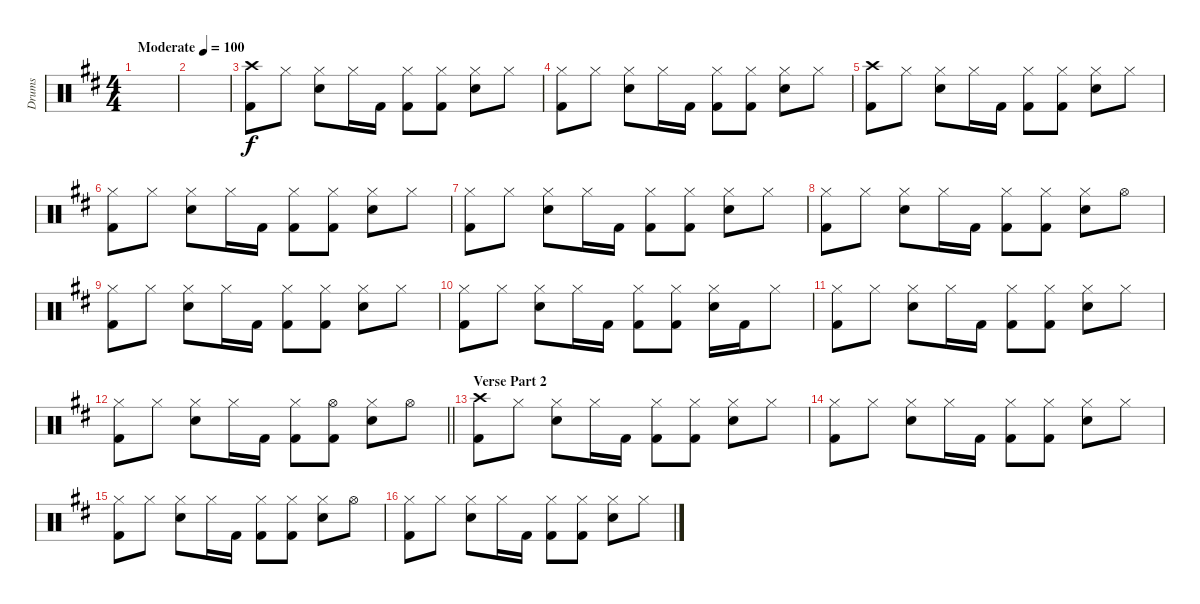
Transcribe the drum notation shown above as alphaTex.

\track ("Drums" "Drums") {instrument percussion}
\staff {score}
\articulation defaults
\ts (4 4)
\tempo (100 "Moderate")
\clef neutral
\ks d
|
|
("Crash high (hit)" "Kick (hit) 2").8 "Hi-Hat (closed)".8 ("Hi-Hat (closed)" "Snare (hit) 2").8 "Hi-Hat (closed)".16 "Kick (hit) 2".16 ("Hi-Hat (closed)" "Kick (hit) 2").8 ("Hi-Hat (closed)" "Kick (hit) 2").8 ("Hi-Hat (closed)" "Snare (hit) 2").8 "Hi-Hat (closed)".8 |
("Hi-Hat (closed)" "Kick (hit) 2").8 "Hi-Hat (closed)".8 ("Hi-Hat (closed)" "Snare (hit) 2").8 "Hi-Hat (closed)".16 "Kick (hit) 2".16 ("Hi-Hat (closed)" "Kick (hit) 2").8 ("Hi-Hat (closed)" "Kick (hit) 2").8 ("Hi-Hat (closed)" "Snare (hit) 2").8 "Hi-Hat (closed)".8 |
("Crash high (hit)" "Kick (hit) 2").8 "Hi-Hat (closed)".8 ("Hi-Hat (closed)" "Snare (hit) 2").8 "Hi-Hat (closed)".16 "Kick (hit) 2".16 ("Hi-Hat (closed)" "Kick (hit) 2").8 ("Hi-Hat (closed)" "Kick (hit) 2").8 ("Hi-Hat (closed)" "Snare (hit) 2").8 "Hi-Hat (closed)".8 |
("Hi-Hat (closed)" "Kick (hit) 2").8 "Hi-Hat (closed)".8 ("Hi-Hat (closed)" "Snare (hit) 2").8 "Hi-Hat (closed)".16 "Kick (hit) 2".16 ("Hi-Hat (closed)" "Kick (hit) 2").8 ("Hi-Hat (closed)" "Kick (hit) 2").8 ("Hi-Hat (closed)" "Snare (hit) 2").8 "Hi-Hat (closed)".8 |
("Hi-Hat (closed)" "Kick (hit) 2").8 "Hi-Hat (closed)".8 ("Hi-Hat (closed)" "Snare (hit) 2").8 "Hi-Hat (closed)".16 "Kick (hit) 2".16 ("Hi-Hat (closed)" "Kick (hit) 2").8 ("Hi-Hat (closed)" "Kick (hit) 2").8 ("Hi-Hat (closed)" "Snare (hit) 2").8 "Hi-Hat (closed)".8 |
("Hi-Hat (closed)" "Kick (hit) 2").8 "Hi-Hat (closed)".8 ("Hi-Hat (closed)" "Snare (hit) 2").8 "Hi-Hat (closed)".16 "Kick (hit) 2".16 ("Hi-Hat (closed)" "Kick (hit) 2").8 ("Hi-Hat (closed)" "Kick (hit) 2").8 ("Hi-Hat (closed)" "Snare (hit) 2").8 "Hi-Hat (open)".8 |
("Hi-Hat (closed)" "Kick (hit) 2").8 "Hi-Hat (closed)".8 ("Hi-Hat (closed)" "Snare (hit) 2").8 "Hi-Hat (closed)".16 "Kick (hit) 2".16 ("Hi-Hat (closed)" "Kick (hit) 2").8 ("Hi-Hat (closed)" "Kick (hit) 2").8 ("Hi-Hat (closed)" "Snare (hit) 2").8 "Hi-Hat (closed)".8 |
("Hi-Hat (closed)" "Kick (hit) 2").8 "Hi-Hat (closed)".8 ("Hi-Hat (closed)" "Snare (hit) 2").8 "Hi-Hat (closed)".16 "Kick (hit) 2".16 ("Hi-Hat (closed)" "Kick (hit) 2").8 ("Hi-Hat (closed)" "Kick (hit) 2").8 ("Hi-Hat (closed)" "Snare (hit) 2").16 "Kick (hit) 2".16 "Hi-Hat (closed)".8 |
("Hi-Hat (closed)" "Kick (hit) 2").8 "Hi-Hat (closed)".8 ("Hi-Hat (closed)" "Snare (hit) 2").8 "Hi-Hat (closed)".16 "Kick (hit) 2".16 ("Hi-Hat (closed)" "Kick (hit) 2").8 ("Hi-Hat (closed)" "Kick (hit) 2").8 ("Hi-Hat (closed)" "Snare (hit) 2").8 "Hi-Hat (closed)".8 |
\barLineRight lightlight
("Hi-Hat (closed)" "Kick (hit) 2").8 "Hi-Hat (closed)".8 ("Hi-Hat (closed)" "Snare (hit) 2").8 "Hi-Hat (closed)".16 "Kick (hit) 2".16 ("Hi-Hat (closed)" "Kick (hit) 2").8 ("Hi-Hat (open)" "Kick (hit) 2").8 ("Hi-Hat (closed)" "Snare (hit) 2").8 "Hi-Hat (open)".8 |
\section ("" "Verse Part 2")
("Crash high (hit)" "Kick (hit) 2").8 "Hi-Hat (closed)".8 ("Hi-Hat (closed)" "Snare (hit) 2").8 "Hi-Hat (closed)".16 "Kick (hit) 2".16 ("Hi-Hat (closed)" "Kick (hit) 2").8 ("Hi-Hat (closed)" "Kick (hit) 2").8 ("Hi-Hat (closed)" "Snare (hit) 2").8 "Hi-Hat (closed)".8 |
("Hi-Hat (closed)" "Kick (hit) 2").8 "Hi-Hat (closed)".8 ("Hi-Hat (closed)" "Snare (hit) 2").8 "Hi-Hat (closed)".16 "Kick (hit) 2".16 ("Hi-Hat (closed)" "Kick (hit) 2").8 ("Hi-Hat (closed)" "Kick (hit) 2").8 ("Hi-Hat (closed)" "Snare (hit) 2").8 "Hi-Hat (closed)".8 |
("Hi-Hat (closed)" "Kick (hit) 2").8 "Hi-Hat (closed)".8 ("Hi-Hat (closed)" "Snare (hit) 2").8 "Hi-Hat (closed)".16 "Kick (hit) 2".16 ("Hi-Hat (closed)" "Kick (hit) 2").8 ("Hi-Hat (closed)" "Kick (hit) 2").8 ("Hi-Hat (closed)" "Snare (hit) 2").8 "Hi-Hat (open)".8 |
("Hi-Hat (closed)" "Kick (hit) 2").8 "Hi-Hat (closed)".8 ("Hi-Hat (closed)" "Snare (hit) 2").8 "Hi-Hat (closed)".16 "Kick (hit) 2".16 ("Hi-Hat (closed)" "Kick (hit) 2").8 ("Hi-Hat (closed)" "Kick (hit) 2").8 ("Hi-Hat (closed)" "Snare (hit) 2").8 "Hi-Hat (closed)".8
